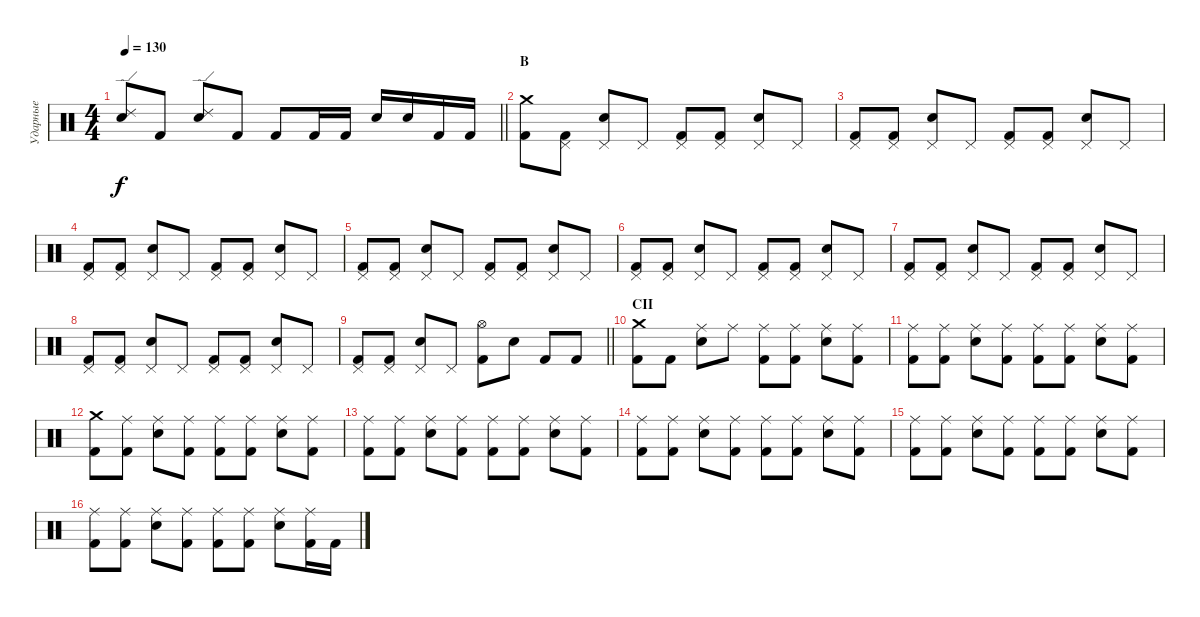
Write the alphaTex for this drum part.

\track ("Ударные" "Ударные") {instrument percussion}
\staff {score}
\articulation defaults
\ts (4 4)
\tempo 130
\clef neutral
\barLineRight lightlight
\ks c
("Ride (edge) 2" "Electric Snare (hit)").8{dy f} "Kick (hit) 2".8 ("Ride (edge) 2" "Electric Snare (hit)").8 "Kick (hit) 2".8 "Kick (hit) 2".8 "Kick (hit) 2".16 "Kick (hit) 2".16 "Electric Snare (hit)".16 "Electric Snare (hit)".16 "Kick (hit) 2".16 "Kick (hit) 2".16 |
\section ("" "B")
("Crash medium (hit)" "Kick (hit) 2").8 ("Pedal Hi-Hat (hit)" "Kick (hit) 2").8 ("Pedal Hi-Hat (hit)" "Electric Snare (hit)").8 "Pedal Hi-Hat (hit)".8 ("Pedal Hi-Hat (hit)" "Kick (hit) 2").8 ("Pedal Hi-Hat (hit)" "Kick (hit) 2").8 ("Pedal Hi-Hat (hit)" "Electric Snare (hit)").8 "Pedal Hi-Hat (hit)".8 |
("Pedal Hi-Hat (hit)" "Kick (hit) 2").8 ("Pedal Hi-Hat (hit)" "Kick (hit) 2").8 ("Pedal Hi-Hat (hit)" "Electric Snare (hit)").8 "Pedal Hi-Hat (hit)".8 ("Pedal Hi-Hat (hit)" "Kick (hit) 2").8 ("Pedal Hi-Hat (hit)" "Kick (hit) 2").8 ("Pedal Hi-Hat (hit)" "Electric Snare (hit)").8 "Pedal Hi-Hat (hit)".8 |
("Pedal Hi-Hat (hit)" "Kick (hit) 2").8 ("Pedal Hi-Hat (hit)" "Kick (hit) 2").8 ("Pedal Hi-Hat (hit)" "Electric Snare (hit)").8 "Pedal Hi-Hat (hit)".8 ("Pedal Hi-Hat (hit)" "Kick (hit) 2").8 ("Pedal Hi-Hat (hit)" "Kick (hit) 2").8 ("Pedal Hi-Hat (hit)" "Electric Snare (hit)").8 "Pedal Hi-Hat (hit)".8 |
("Pedal Hi-Hat (hit)" "Kick (hit) 2").8 ("Pedal Hi-Hat (hit)" "Kick (hit) 2").8 ("Pedal Hi-Hat (hit)" "Electric Snare (hit)").8 "Pedal Hi-Hat (hit)".8 ("Pedal Hi-Hat (hit)" "Kick (hit) 2").8 ("Pedal Hi-Hat (hit)" "Kick (hit) 2").8 ("Pedal Hi-Hat (hit)" "Electric Snare (hit)").8 "Pedal Hi-Hat (hit)".8 |
("Pedal Hi-Hat (hit)" "Kick (hit) 2").8 ("Pedal Hi-Hat (hit)" "Kick (hit) 2").8 ("Pedal Hi-Hat (hit)" "Electric Snare (hit)").8 "Pedal Hi-Hat (hit)".8 ("Pedal Hi-Hat (hit)" "Kick (hit) 2").8 ("Pedal Hi-Hat (hit)" "Kick (hit) 2").8 ("Pedal Hi-Hat (hit)" "Electric Snare (hit)").8 "Pedal Hi-Hat (hit)".8 |
("Pedal Hi-Hat (hit)" "Kick (hit) 2").8 ("Pedal Hi-Hat (hit)" "Kick (hit) 2").8 ("Pedal Hi-Hat (hit)" "Electric Snare (hit)").8 "Pedal Hi-Hat (hit)".8 ("Pedal Hi-Hat (hit)" "Kick (hit) 2").8 ("Pedal Hi-Hat (hit)" "Kick (hit) 2").8 ("Pedal Hi-Hat (hit)" "Electric Snare (hit)").8 "Pedal Hi-Hat (hit)".8 |
("Pedal Hi-Hat (hit)" "Kick (hit) 2").8 ("Pedal Hi-Hat (hit)" "Kick (hit) 2").8 ("Pedal Hi-Hat (hit)" "Electric Snare (hit)").8 "Pedal Hi-Hat (hit)".8 ("Pedal Hi-Hat (hit)" "Kick (hit) 2").8 ("Pedal Hi-Hat (hit)" "Kick (hit) 2").8 ("Pedal Hi-Hat (hit)" "Electric Snare (hit)").8 "Pedal Hi-Hat (hit)".8 |
\barLineRight lightlight
("Pedal Hi-Hat (hit)" "Kick (hit) 2").8 ("Pedal Hi-Hat (hit)" "Kick (hit) 2").8 ("Pedal Hi-Hat (hit)" "Electric Snare (hit)").8 "Pedal Hi-Hat (hit)".8 ("Hi-Hat (open)" "Kick (hit) 2").8 "Electric Snare (hit)".8 "Kick (hit) 2".8 "Kick (hit) 2".8 |
\section ("" "CII")
("Crash medium (hit)" "Kick (hit) 2").8 "Kick (hit) 2".8 ("Ride (middle)" "Electric Snare (hit)").8 "Ride (middle)".8 ("Ride (middle)" "Kick (hit) 2").8 ("Ride (middle)" "Kick (hit) 2").8 ("Ride (middle)" "Electric Snare (hit)").8 ("Ride (middle)" "Kick (hit) 2").8 |
("Ride (middle)" "Kick (hit) 2").8 ("Ride (middle)" "Kick (hit) 2").8 ("Ride (middle)" "Electric Snare (hit)").8 ("Ride (middle)" "Kick (hit) 2").8 ("Ride (middle)" "Kick (hit) 2").8 ("Ride (middle)" "Kick (hit) 2").8 ("Ride (middle)" "Electric Snare (hit)").8 ("Ride (middle)" "Kick (hit) 2").8 |
("Crash medium (hit)" "Kick (hit) 2").8 ("Ride (middle)" "Kick (hit) 2").8 ("Ride (middle)" "Electric Snare (hit)").8 ("Ride (middle)" "Kick (hit) 2").8 ("Ride (middle)" "Kick (hit) 2").8 ("Ride (middle)" "Kick (hit) 2").8 ("Ride (middle)" "Electric Snare (hit)").8 ("Ride (middle)" "Kick (hit) 2").8 |
("Ride (middle)" "Kick (hit) 2").8 ("Ride (middle)" "Kick (hit) 2").8 ("Ride (middle)" "Electric Snare (hit)").8 ("Ride (middle)" "Kick (hit) 2").8 ("Ride (middle)" "Kick (hit) 2").8 ("Ride (middle)" "Kick (hit) 2").8 ("Ride (middle)" "Electric Snare (hit)").8 ("Ride (middle)" "Kick (hit) 2").8 |
("Ride (middle)" "Kick (hit) 2").8 ("Ride (middle)" "Kick (hit) 2").8 ("Ride (middle)" "Electric Snare (hit)").8 ("Ride (middle)" "Kick (hit) 2").8 ("Ride (middle)" "Kick (hit) 2").8 ("Ride (middle)" "Kick (hit) 2").8 ("Ride (middle)" "Electric Snare (hit)").8 ("Ride (middle)" "Kick (hit) 2").8 |
("Ride (middle)" "Kick (hit) 2").8 ("Ride (middle)" "Kick (hit) 2").8 ("Ride (middle)" "Electric Snare (hit)").8 ("Ride (middle)" "Kick (hit) 2").8 ("Ride (middle)" "Kick (hit) 2").8 ("Ride (middle)" "Kick (hit) 2").8 ("Ride (middle)" "Electric Snare (hit)").8 ("Ride (middle)" "Kick (hit) 2").8 |
("Ride (middle)" "Kick (hit) 2").8 ("Ride (middle)" "Kick (hit) 2").8 ("Ride (middle)" "Electric Snare (hit)").8 ("Ride (middle)" "Kick (hit) 2").8 ("Ride (middle)" "Kick (hit) 2").8 ("Ride (middle)" "Kick (hit) 2").8 ("Ride (middle)" "Electric Snare (hit)").8 ("Ride (middle)" "Kick (hit) 2").16 "Kick (hit) 2".16
